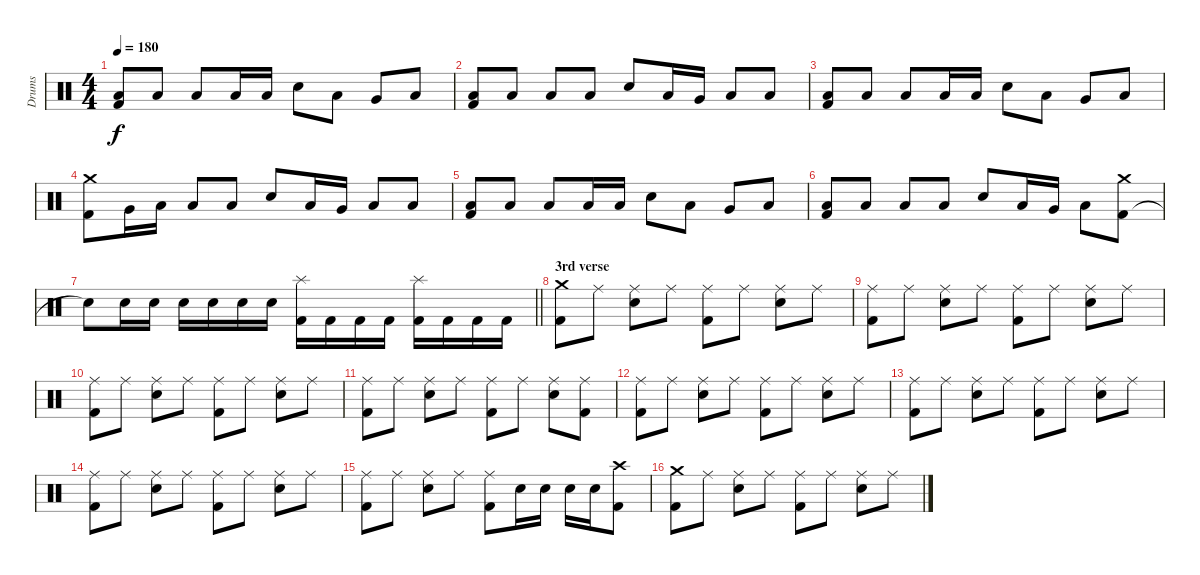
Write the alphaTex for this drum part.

\track ("Drums" "Drums") {instrument percussion}
\staff {score}
\articulation defaults
\ts (4 4)
\tempo 180
\clef neutral
\ks c
("Kick (hit) 2" "Low Floor Tom (hit)").8{dy f} "Low Floor Tom (hit)".8 "Low Floor Tom (hit)".8 "Low Floor Tom (hit)".16 "Low Floor Tom (hit)".16 "Snare (hit) 2".8 "Low Tom (hit)".8 "Very Low Tom (hit)".8 "Low Floor Tom (hit)".8 |
("Kick (hit) 2" "Low Floor Tom (hit)").8 "Low Floor Tom (hit)".8 "Low Floor Tom (hit)".8 "Low Floor Tom (hit)".8 "Snare (hit) 2".8 "Low Tom (hit)".16 "Very Low Tom (hit)".16 "Low Floor Tom (hit)".8 "Low Floor Tom (hit)".8 |
("Kick (hit) 2" "Low Floor Tom (hit)").8 "Low Floor Tom (hit)".8 "Low Floor Tom (hit)".8 "Low Floor Tom (hit)".16 "Low Floor Tom (hit)".16 "Snare (hit) 2".8 "Low Tom (hit)".8 "Very Low Tom (hit)".8 "Low Floor Tom (hit)".8 |
("Kick (hit) 2" "Crash medium (hit)").8 "Very Low Tom (hit)".16 "Low Floor Tom (hit)".16 "Low Floor Tom (hit)".8 "Low Floor Tom (hit)".8 "Snare (hit) 2".8 "Low Tom (hit)".16 "Very Low Tom (hit)".16 "Low Floor Tom (hit)".8 "Low Floor Tom (hit)".8 |
("Kick (hit) 2" "Low Floor Tom (hit)").8 "Low Floor Tom (hit)".8 "Low Floor Tom (hit)".8 "Low Floor Tom (hit)".16 "Low Floor Tom (hit)".16 "Snare (hit) 2".8 "Low Tom (hit)".8 "Very Low Tom (hit)".8 "Low Floor Tom (hit)".8 |
("Kick (hit) 2" "Low Floor Tom (hit)").8 "Low Floor Tom (hit)".8 "Low Floor Tom (hit)".8 "Low Floor Tom (hit)".8 "Snare (hit) 2".8 "Low Tom (hit)".16 "Very Low Tom (hit)".16 "Low Floor Tom (hit)".8 ("Kick (hit) 2" "Crash medium (hit)").8 |
\barLineRight lightlight "Snare (hit)"{t}.8 "Snare (hit) 2".16 "Snare (hit) 2".16 "Snare (hit) 2".16 "Snare (hit) 2".16 "Snare (hit) 2".16 "Snare (hit) 2".16
("Kick (hit) 2" "Splash (hit)").16 "Kick (hit) 2".16 "Kick (hit) 2".16 "Kick (hit) 2".16 ("Kick (hit) 2" "Splash (hit)").16 "Kick (hit) 2".16 "Kick (hit) 2".16 "Kick (hit) 2".16 |
\section ("" "3rd verse")
("Kick (hit) 2" "Crash medium (hit)").8 "Ride (middle)".8 ("Ride (middle)" "Snare (hit) 2").8 "Ride (middle)".8 ("Kick (hit) 2" "Ride (middle)").8 "Ride (middle)".8 ("Ride (middle)" "Snare (hit) 2").8 "Ride (middle)".8 |
("Kick (hit) 2" "Ride (middle)").8 "Ride (middle)".8 ("Ride (middle)" "Snare (hit) 2").8 "Ride (middle)".8 ("Kick (hit) 2" "Ride (middle)").8 "Ride (middle)".8 ("Ride (middle)" "Snare (hit) 2").8 "Ride (middle)".8 |
("Kick (hit) 2" "Ride (middle)").8 "Ride (middle)".8 ("Ride (middle)" "Snare (hit) 2").8 "Ride (middle)".8 ("Kick (hit) 2" "Ride (middle)").8 "Ride (middle)".8 ("Ride (middle)" "Snare (hit) 2").8 "Ride (middle)".8 |
("Kick (hit) 2" "Ride (middle)").8 "Ride (middle)".8 ("Ride (middle)" "Snare (hit) 2").8 "Ride (middle)".8 ("Kick (hit) 2" "Ride (middle)").8 "Ride (middle)".8 ("Ride (middle)" "Snare (hit) 2").8 ("Kick (hit) 2" "Ride (middle)").8 |
("Kick (hit) 2" "Ride (middle)").8 "Ride (middle)".8 ("Ride (middle)" "Snare (hit) 2").8 "Ride (middle)".8 ("Kick (hit) 2" "Ride (middle)").8 "Ride (middle)".8 ("Ride (middle)" "Snare (hit) 2").8 "Ride (middle)".8 |
("Kick (hit) 2" "Ride (middle)").8 "Ride (middle)".8 ("Ride (middle)" "Snare (hit) 2").8 "Ride (middle)".8 ("Kick (hit) 2" "Ride (middle)").8 "Ride (middle)".8 ("Ride (middle)" "Snare (hit) 2").8 "Ride (middle)".8 |
("Kick (hit) 2" "Ride (middle)").8 "Ride (middle)".8 ("Ride (middle)" "Snare (hit) 2").8 "Ride (middle)".8 ("Kick (hit) 2" "Ride (middle)").8 "Ride (middle)".8 ("Ride (middle)" "Snare (hit) 2").8 "Ride (middle)".8 |
("Kick (hit) 2" "Ride (middle)").8 "Ride (middle)".8 ("Ride (middle)" "Snare (hit) 2").8 "Ride (middle)".8 ("Kick (hit) 2" "Ride (middle)").8 "Snare (hit) 2".16 "Snare (hit) 2".16 "Snare (hit) 2".16 "Snare (hit) 2".16 ("Kick (hit) 2" "Crash high (hit)").8 |
("Kick (hit) 2" "Crash medium (hit)").8 "Ride (middle)".8 ("Ride (middle)" "Snare (hit) 2").8 "Ride (middle)".8 ("Kick (hit) 2" "Ride (middle)").8 "Ride (middle)".8 ("Ride (middle)" "Snare (hit) 2").8 "Ride (middle)".8
